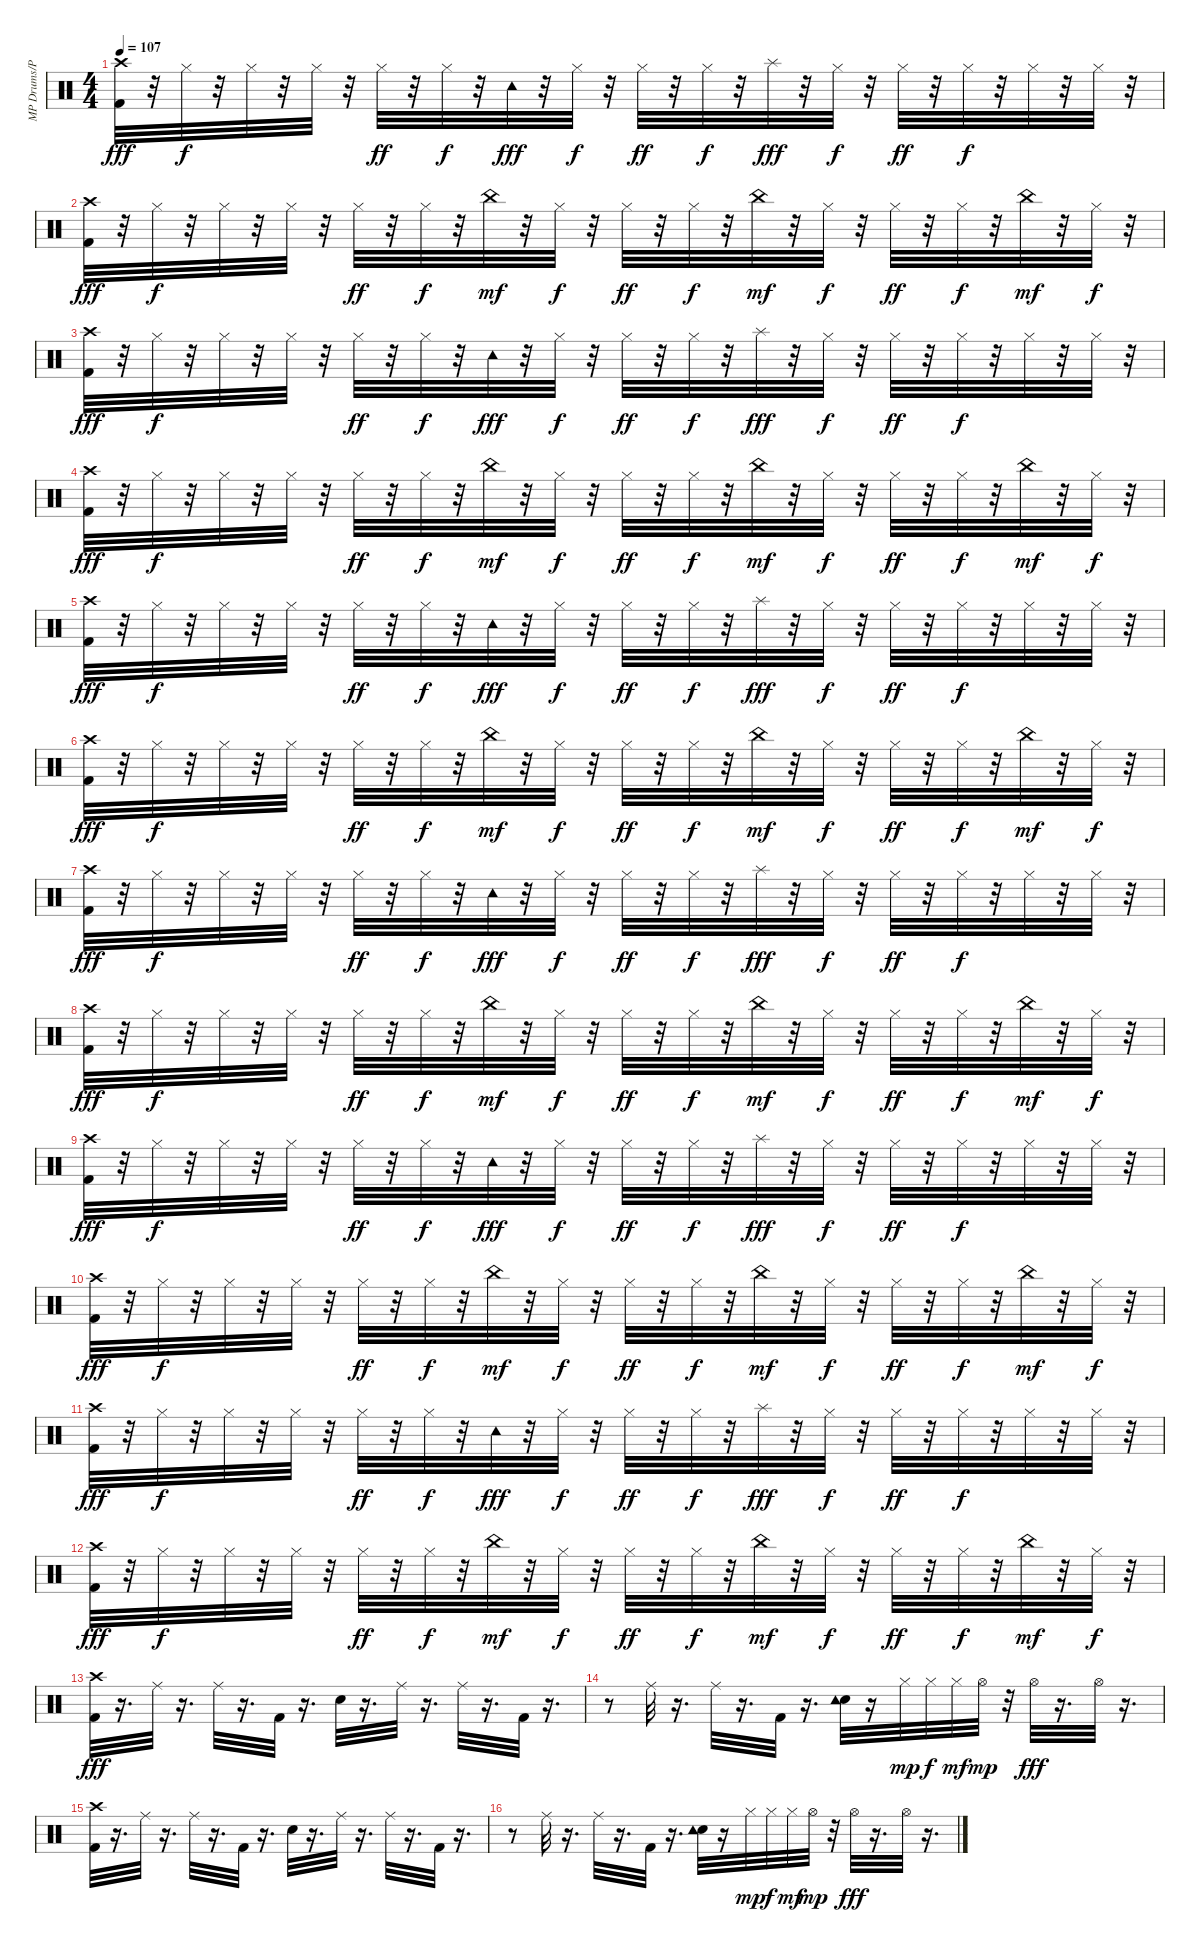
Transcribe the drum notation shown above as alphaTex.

\track ("MP Drums/Percussion" "MP Drums/P") {instrument percussion}
\staff {score}
\articulation defaults
\ts (4 4)
\tempo 107
\clef neutral
\ks c
("Kick (hit) 2" "Crash high (hit)").32{dy fff} r.32 "Hi-Hat (closed)".32{dy f} r.32 "Hi-Hat (closed)".32 r.32 "Hi-Hat (closed)".32 r.32 "Hi-Hat (closed)".32{dy ff} r.32 "Hi-Hat (closed)".32{dy f} r.32 "Tambourine (hit)".32{dy fff} r.32 "Hi-Hat (closed)".32{dy f} r.32 "Hi-Hat (closed)".32{dy ff} r.32 "Hi-Hat (closed)".32{dy f} r.32 "Splash (hit)".32{dy fff} r.32 "Hi-Hat (closed)".32{dy f} r.32 "Hi-Hat (closed)".32{dy ff} r.32 "Hi-Hat (closed)".32{dy f} r.32 "Hi-Hat (closed)".32 r.32 "Hi-Hat (closed)".32 r.32 |
("Kick (hit) 2" "Crash high (hit)").32{dy fff} r.32 "Hi-Hat (closed)".32{dy f} r.32 "Hi-Hat (closed)".32 r.32 "Hi-Hat (closed)".32 r.32 "Hi-Hat (closed)".32{dy ff} r.32 "Hi-Hat (closed)".32{dy f} r.32 "China (hit)".32{dy mf} r.32 "Hi-Hat (closed)".32{dy f} r.32 "Hi-Hat (closed)".32{dy ff} r.32 "Hi-Hat (closed)".32{dy f} r.32 "China (hit)".32{dy mf} r.32 "Hi-Hat (closed)".32{dy f} r.32 "Hi-Hat (closed)".32{dy ff} r.32 "Hi-Hat (closed)".32{dy f} r.32 "China (hit)".32{dy mf} r.32 "Hi-Hat (closed)".32{dy f} r.32 |
("Kick (hit) 2" "Crash high (hit)").32{dy fff} r.32 "Hi-Hat (closed)".32{dy f} r.32 "Hi-Hat (closed)".32 r.32 "Hi-Hat (closed)".32 r.32 "Hi-Hat (closed)".32{dy ff} r.32 "Hi-Hat (closed)".32{dy f} r.32 "Tambourine (hit)".32{dy fff} r.32 "Hi-Hat (closed)".32{dy f} r.32 "Hi-Hat (closed)".32{dy ff} r.32 "Hi-Hat (closed)".32{dy f} r.32 "Splash (hit)".32{dy fff} r.32 "Hi-Hat (closed)".32{dy f} r.32 "Hi-Hat (closed)".32{dy ff} r.32 "Hi-Hat (closed)".32{dy f} r.32 "Hi-Hat (closed)".32 r.32 "Hi-Hat (closed)".32 r.32 |
("Kick (hit) 2" "Crash high (hit)").32{dy fff} r.32 "Hi-Hat (closed)".32{dy f} r.32 "Hi-Hat (closed)".32 r.32 "Hi-Hat (closed)".32 r.32 "Hi-Hat (closed)".32{dy ff} r.32 "Hi-Hat (closed)".32{dy f} r.32 "China (hit)".32{dy mf} r.32 "Hi-Hat (closed)".32{dy f} r.32 "Hi-Hat (closed)".32{dy ff} r.32 "Hi-Hat (closed)".32{dy f} r.32 "China (hit)".32{dy mf} r.32 "Hi-Hat (closed)".32{dy f} r.32 "Hi-Hat (closed)".32{dy ff} r.32 "Hi-Hat (closed)".32{dy f} r.32 "China (hit)".32{dy mf} r.32 "Hi-Hat (closed)".32{dy f} r.32 |
("Kick (hit) 2" "Crash high (hit)").32{dy fff} r.32 "Hi-Hat (closed)".32{dy f} r.32 "Hi-Hat (closed)".32 r.32 "Hi-Hat (closed)".32 r.32 "Hi-Hat (closed)".32{dy ff} r.32 "Hi-Hat (closed)".32{dy f} r.32 "Tambourine (hit)".32{dy fff} r.32 "Hi-Hat (closed)".32{dy f} r.32 "Hi-Hat (closed)".32{dy ff} r.32 "Hi-Hat (closed)".32{dy f} r.32 "Splash (hit)".32{dy fff} r.32 "Hi-Hat (closed)".32{dy f} r.32 "Hi-Hat (closed)".32{dy ff} r.32 "Hi-Hat (closed)".32{dy f} r.32 "Hi-Hat (closed)".32 r.32 "Hi-Hat (closed)".32 r.32 |
("Kick (hit) 2" "Crash high (hit)").32{dy fff} r.32 "Hi-Hat (closed)".32{dy f} r.32 "Hi-Hat (closed)".32 r.32 "Hi-Hat (closed)".32 r.32 "Hi-Hat (closed)".32{dy ff} r.32 "Hi-Hat (closed)".32{dy f} r.32 "China (hit)".32{dy mf} r.32 "Hi-Hat (closed)".32{dy f} r.32 "Hi-Hat (closed)".32{dy ff} r.32 "Hi-Hat (closed)".32{dy f} r.32 "China (hit)".32{dy mf} r.32 "Hi-Hat (closed)".32{dy f} r.32 "Hi-Hat (closed)".32{dy ff} r.32 "Hi-Hat (closed)".32{dy f} r.32 "China (hit)".32{dy mf} r.32 "Hi-Hat (closed)".32{dy f} r.32 |
("Kick (hit) 2" "Crash high (hit)").32{dy fff} r.32 "Hi-Hat (closed)".32{dy f} r.32 "Hi-Hat (closed)".32 r.32 "Hi-Hat (closed)".32 r.32 "Hi-Hat (closed)".32{dy ff} r.32 "Hi-Hat (closed)".32{dy f} r.32 "Tambourine (hit)".32{dy fff} r.32 "Hi-Hat (closed)".32{dy f} r.32 "Hi-Hat (closed)".32{dy ff} r.32 "Hi-Hat (closed)".32{dy f} r.32 "Splash (hit)".32{dy fff} r.32 "Hi-Hat (closed)".32{dy f} r.32 "Hi-Hat (closed)".32{dy ff} r.32 "Hi-Hat (closed)".32{dy f} r.32 "Hi-Hat (closed)".32 r.32 "Hi-Hat (closed)".32 r.32 |
("Kick (hit) 2" "Crash high (hit)").32{dy fff} r.32 "Hi-Hat (closed)".32{dy f} r.32 "Hi-Hat (closed)".32 r.32 "Hi-Hat (closed)".32 r.32 "Hi-Hat (closed)".32{dy ff} r.32 "Hi-Hat (closed)".32{dy f} r.32 "China (hit)".32{dy mf} r.32 "Hi-Hat (closed)".32{dy f} r.32 "Hi-Hat (closed)".32{dy ff} r.32 "Hi-Hat (closed)".32{dy f} r.32 "China (hit)".32{dy mf} r.32 "Hi-Hat (closed)".32{dy f} r.32 "Hi-Hat (closed)".32{dy ff} r.32 "Hi-Hat (closed)".32{dy f} r.32 "China (hit)".32{dy mf} r.32 "Hi-Hat (closed)".32{dy f} r.32 |
("Kick (hit) 2" "Crash high (hit)").32{dy fff} r.32 "Hi-Hat (closed)".32{dy f} r.32 "Hi-Hat (closed)".32 r.32 "Hi-Hat (closed)".32 r.32 "Hi-Hat (closed)".32{dy ff} r.32 "Hi-Hat (closed)".32{dy f} r.32 "Tambourine (hit)".32{dy fff} r.32 "Hi-Hat (closed)".32{dy f} r.32 "Hi-Hat (closed)".32{dy ff} r.32 "Hi-Hat (closed)".32{dy f} r.32 "Splash (hit)".32{dy fff} r.32 "Hi-Hat (closed)".32{dy f} r.32 "Hi-Hat (closed)".32{dy ff} r.32 "Hi-Hat (closed)".32{dy f} r.32 "Hi-Hat (closed)".32 r.32 "Hi-Hat (closed)".32 r.32 |
("Kick (hit) 2" "Crash high (hit)").32{dy fff} r.32 "Hi-Hat (closed)".32{dy f} r.32 "Hi-Hat (closed)".32 r.32 "Hi-Hat (closed)".32 r.32 "Hi-Hat (closed)".32{dy ff} r.32 "Hi-Hat (closed)".32{dy f} r.32 "China (hit)".32{dy mf} r.32 "Hi-Hat (closed)".32{dy f} r.32 "Hi-Hat (closed)".32{dy ff} r.32 "Hi-Hat (closed)".32{dy f} r.32 "China (hit)".32{dy mf} r.32 "Hi-Hat (closed)".32{dy f} r.32 "Hi-Hat (closed)".32{dy ff} r.32 "Hi-Hat (closed)".32{dy f} r.32 "China (hit)".32{dy mf} r.32 "Hi-Hat (closed)".32{dy f} r.32 |
("Kick (hit) 2" "Crash high (hit)").32{dy fff} r.32 "Hi-Hat (closed)".32{dy f} r.32 "Hi-Hat (closed)".32 r.32 "Hi-Hat (closed)".32 r.32 "Hi-Hat (closed)".32{dy ff} r.32 "Hi-Hat (closed)".32{dy f} r.32 "Tambourine (hit)".32{dy fff} r.32 "Hi-Hat (closed)".32{dy f} r.32 "Hi-Hat (closed)".32{dy ff} r.32 "Hi-Hat (closed)".32{dy f} r.32 "Splash (hit)".32{dy fff} r.32 "Hi-Hat (closed)".32{dy f} r.32 "Hi-Hat (closed)".32{dy ff} r.32 "Hi-Hat (closed)".32{dy f} r.32 "Hi-Hat (closed)".32 r.32 "Hi-Hat (closed)".32 r.32 |
("Kick (hit) 2" "Crash high (hit)").32{dy fff} r.32 "Hi-Hat (closed)".32{dy f} r.32 "Hi-Hat (closed)".32 r.32 "Hi-Hat (closed)".32 r.32 "Hi-Hat (closed)".32{dy ff} r.32 "Hi-Hat (closed)".32{dy f} r.32 "China (hit)".32{dy mf} r.32 "Hi-Hat (closed)".32{dy f} r.32 "Hi-Hat (closed)".32{dy ff} r.32 "Hi-Hat (closed)".32{dy f} r.32 "China (hit)".32{dy mf} r.32 "Hi-Hat (closed)".32{dy f} r.32 "Hi-Hat (closed)".32{dy ff} r.32 "Hi-Hat (closed)".32{dy f} r.32 "China (hit)".32{dy mf} r.32 "Hi-Hat (closed)".32{dy f} r.32 |
("Kick (hit) 2" "Crash high (hit)").32{dy fff} r.16{d} "Ride (middle)".32 r.16{d} "Ride (middle)".32 r.16{d} "Kick (hit) 2".32 r.16{d} "Snare (hit) 2".32 r.16{d} "Ride (middle)".32 r.16{d} "Ride (middle)".32 r.16{d} "Kick (hit) 2".32 r.16{d} |
r.8 "Ride (middle)".32 r.16{d} "Ride (middle)".32 r.16{d} "Kick (hit) 2".32 r.16{d} ("Snare (hit) 2" "Tambourine (hit)").32 r.16 "Hi-Hat (closed)".32{dy mp} "Hi-Hat (closed)".32{dy f} "Hi-Hat (closed)".32{dy mf} "Hi-Hat (open)".32{dy mp} r.32 "Hi-Hat (open)".32{dy fff} r.16{d} "Hi-Hat (open)".32 r.16{d} |
("Kick (hit) 2" "Crash high (hit)").32 r.16{d} "Ride (middle)".32 r.16{d} "Ride (middle)".32 r.16{d} "Kick (hit) 2".32 r.16{d} "Snare (hit) 2".32 r.16{d} "Ride (middle)".32 r.16{d} "Ride (middle)".32 r.16{d} "Kick (hit) 2".32 r.16{d} |
r.8 "Ride (middle)".32 r.16{d} "Ride (middle)".32 r.16{d} "Kick (hit) 2".32 r.16{d} ("Snare (hit) 2" "Tambourine (hit)").32 r.16 "Hi-Hat (closed)".32{dy mp} "Hi-Hat (closed)".32{dy f} "Hi-Hat (closed)".32{dy mf} "Hi-Hat (open)".32{dy mp} r.32 "Hi-Hat (open)".32{dy fff} r.16{d} "Hi-Hat (open)".32 r.16{d}
